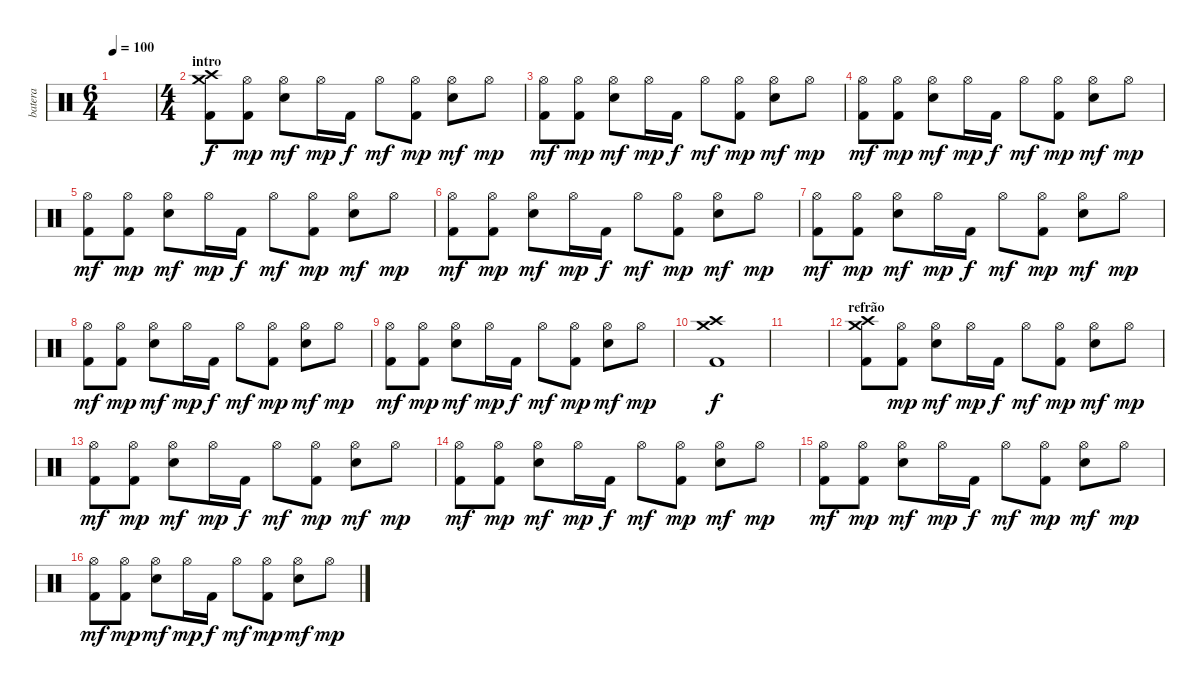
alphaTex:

\track ("batera" "batera") {instrument percussion}
\staff {score}
\articulation defaults
\ts (6 4)
\tempo 100
\clef neutral
\ks c
|
\ts (4 4)
\section ("" "intro")
("Crash high (hit)" "Crash medium (hit)" "Kick (hit) 2").8 ("Kick (hit) 2" "Hi-Hat (open)").8{dy mp} ("Snare (hit) 2" "Hi-Hat (open)").8{dy mf} "Hi-Hat (open)".16{dy mp} "Kick (hit) 2".16{dy f} "Hi-Hat (open)".8{dy mf} ("Kick (hit) 2" "Hi-Hat (open)").8{dy mp} ("Snare (hit) 2" "Hi-Hat (open)").8{dy mf} "Hi-Hat (open)".8{dy mp} |
("Kick (hit) 2" "Hi-Hat (open)").8{dy mf} ("Kick (hit) 2" "Hi-Hat (open)").8{dy mp} ("Snare (hit) 2" "Hi-Hat (open)").8{dy mf} "Hi-Hat (open)".16{dy mp} "Kick (hit) 2".16{dy f} "Hi-Hat (open)".8{dy mf} ("Kick (hit) 2" "Hi-Hat (open)").8{dy mp} ("Snare (hit) 2" "Hi-Hat (open)").8{dy mf} "Hi-Hat (open)".8{dy mp} |
("Kick (hit) 2" "Hi-Hat (open)").8{dy mf} ("Kick (hit) 2" "Hi-Hat (open)").8{dy mp} ("Snare (hit) 2" "Hi-Hat (open)").8{dy mf} "Hi-Hat (open)".16{dy mp} "Kick (hit) 2".16{dy f} "Hi-Hat (open)".8{dy mf} ("Kick (hit) 2" "Hi-Hat (open)").8{dy mp} ("Snare (hit) 2" "Hi-Hat (open)").8{dy mf} "Hi-Hat (open)".8{dy mp} |
("Kick (hit) 2" "Hi-Hat (open)").8{dy mf} ("Kick (hit) 2" "Hi-Hat (open)").8{dy mp} ("Snare (hit) 2" "Hi-Hat (open)").8{dy mf} "Hi-Hat (open)".16{dy mp} "Kick (hit) 2".16{dy f} "Hi-Hat (open)".8{dy mf} ("Kick (hit) 2" "Hi-Hat (open)").8{dy mp} ("Snare (hit) 2" "Hi-Hat (open)").8{dy mf} "Hi-Hat (open)".8{dy mp} |
("Kick (hit) 2" "Hi-Hat (open)").8{dy mf} ("Kick (hit) 2" "Hi-Hat (open)").8{dy mp} ("Snare (hit) 2" "Hi-Hat (open)").8{dy mf} "Hi-Hat (open)".16{dy mp} "Kick (hit) 2".16{dy f} "Hi-Hat (open)".8{dy mf} ("Kick (hit) 2" "Hi-Hat (open)").8{dy mp} ("Snare (hit) 2" "Hi-Hat (open)").8{dy mf} "Hi-Hat (open)".8{dy mp} |
("Kick (hit) 2" "Hi-Hat (open)").8{dy mf} ("Kick (hit) 2" "Hi-Hat (open)").8{dy mp} ("Snare (hit) 2" "Hi-Hat (open)").8{dy mf} "Hi-Hat (open)".16{dy mp} "Kick (hit) 2".16{dy f} "Hi-Hat (open)".8{dy mf} ("Kick (hit) 2" "Hi-Hat (open)").8{dy mp} ("Snare (hit) 2" "Hi-Hat (open)").8{dy mf} "Hi-Hat (open)".8{dy mp} |
("Kick (hit) 2" "Hi-Hat (open)").8{dy mf} ("Kick (hit) 2" "Hi-Hat (open)").8{dy mp} ("Snare (hit) 2" "Hi-Hat (open)").8{dy mf} "Hi-Hat (open)".16{dy mp} "Kick (hit) 2".16{dy f} "Hi-Hat (open)".8{dy mf} ("Kick (hit) 2" "Hi-Hat (open)").8{dy mp} ("Snare (hit) 2" "Hi-Hat (open)").8{dy mf} "Hi-Hat (open)".8{dy mp} |
("Kick (hit) 2" "Hi-Hat (open)").8{dy mf} ("Kick (hit) 2" "Hi-Hat (open)").8{dy mp} ("Snare (hit) 2" "Hi-Hat (open)").8{dy mf} "Hi-Hat (open)".16{dy mp} "Kick (hit) 2".16{dy f} "Hi-Hat (open)".8{dy mf} ("Kick (hit) 2" "Hi-Hat (open)").8{dy mp} ("Snare (hit) 2" "Hi-Hat (open)").8{dy mf} "Hi-Hat (open)".8{dy mp} |
("Crash high (hit)" "Crash medium (hit)" "Kick (hit) 2").1{dy f} |
|
\section ("" "refrão")
("Crash high (hit)" "Crash medium (hit)" "Kick (hit) 2").8 ("Kick (hit) 2" "Hi-Hat (open)").8{dy mp} ("Snare (hit) 2" "Hi-Hat (open)").8{dy mf} "Hi-Hat (open)".16{dy mp} "Kick (hit) 2".16{dy f} "Hi-Hat (open)".8{dy mf} ("Kick (hit) 2" "Hi-Hat (open)").8{dy mp} ("Snare (hit) 2" "Hi-Hat (open)").8{dy mf} "Hi-Hat (open)".8{dy mp} |
("Kick (hit) 2" "Hi-Hat (open)").8{dy mf} ("Kick (hit) 2" "Hi-Hat (open)").8{dy mp} ("Snare (hit) 2" "Hi-Hat (open)").8{dy mf} "Hi-Hat (open)".16{dy mp} "Kick (hit) 2".16{dy f} "Hi-Hat (open)".8{dy mf} ("Kick (hit) 2" "Hi-Hat (open)").8{dy mp} ("Snare (hit) 2" "Hi-Hat (open)").8{dy mf} "Hi-Hat (open)".8{dy mp} |
("Kick (hit) 2" "Hi-Hat (open)").8{dy mf} ("Kick (hit) 2" "Hi-Hat (open)").8{dy mp} ("Snare (hit) 2" "Hi-Hat (open)").8{dy mf} "Hi-Hat (open)".16{dy mp} "Kick (hit) 2".16{dy f} "Hi-Hat (open)".8{dy mf} ("Kick (hit) 2" "Hi-Hat (open)").8{dy mp} ("Snare (hit) 2" "Hi-Hat (open)").8{dy mf} "Hi-Hat (open)".8{dy mp} |
("Kick (hit) 2" "Hi-Hat (open)").8{dy mf} ("Kick (hit) 2" "Hi-Hat (open)").8{dy mp} ("Snare (hit) 2" "Hi-Hat (open)").8{dy mf} "Hi-Hat (open)".16{dy mp} "Kick (hit) 2".16{dy f} "Hi-Hat (open)".8{dy mf} ("Kick (hit) 2" "Hi-Hat (open)").8{dy mp} ("Snare (hit) 2" "Hi-Hat (open)").8{dy mf} "Hi-Hat (open)".8{dy mp} |
("Kick (hit) 2" "Hi-Hat (open)").8{dy mf} ("Kick (hit) 2" "Hi-Hat (open)").8{dy mp} ("Snare (hit) 2" "Hi-Hat (open)").8{dy mf} "Hi-Hat (open)".16{dy mp} "Kick (hit) 2".16{dy f} "Hi-Hat (open)".8{dy mf} ("Kick (hit) 2" "Hi-Hat (open)").8{dy mp} ("Snare (hit) 2" "Hi-Hat (open)").8{dy mf} "Hi-Hat (open)".8{dy mp}
